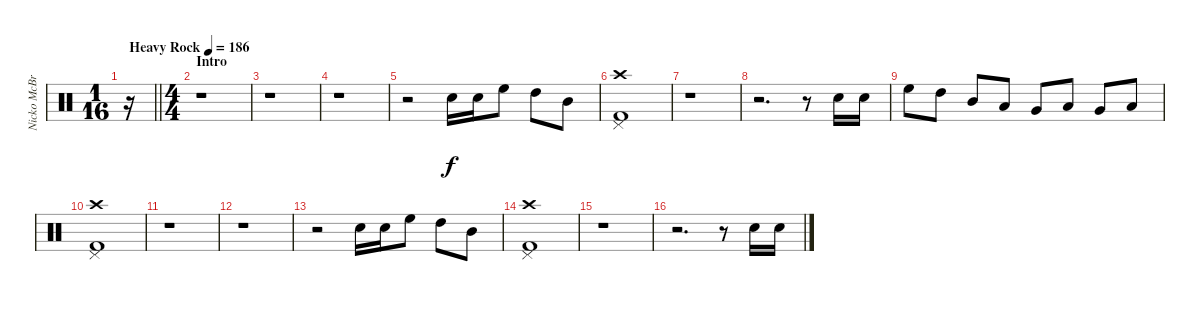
\track ("Nicko McBrain" "Nicko McBr") {instrument percussion}
\staff {score}
\articulation defaults
\ts (1 16)
\tempo (186 "Heavy Rock")
\clef neutral
\barLineRight lightlight
\ks c
r.16{dy f} |
\ts (4 4)
\section ("" "Intro")
r.1 |
r.1 |
r.1 |
r.2 "Snare (hit) 2".16 "Snare (hit) 2".16 "High Floor Tom (hit)".8 "High Tom (hit)".8 "Mid Tom (hit)".8 |
("Kick (hit) 2" "Pedal Hi-Hat (hit)" "Crash high (hit)").1 |
r.1 |
r.2{d} r.8 "Snare (hit) 2".16 "Snare (hit) 2".16 |
"High Floor Tom (hit)".8 "High Tom (hit)".8 "Mid Tom (hit)".8 "Low Tom (hit)".8 "Very Low Tom (hit)".8 "Low Floor Tom (hit)".8 "Very Low Tom (hit)".8 "Low Floor Tom (hit)".8 |
("Kick (hit) 2" "Pedal Hi-Hat (hit)" "Crash high (hit)").1 |
r.1 |
r.1 |
r.2 "Snare (hit) 2".16 "Snare (hit) 2".16 "High Floor Tom (hit)".8 "High Tom (hit)".8 "Mid Tom (hit)".8 |
("Kick (hit) 2" "Pedal Hi-Hat (hit)" "Crash high (hit)").1 |
r.1 |
r.2{d} r.8 "Snare (hit) 2".16 "Snare (hit) 2".16
